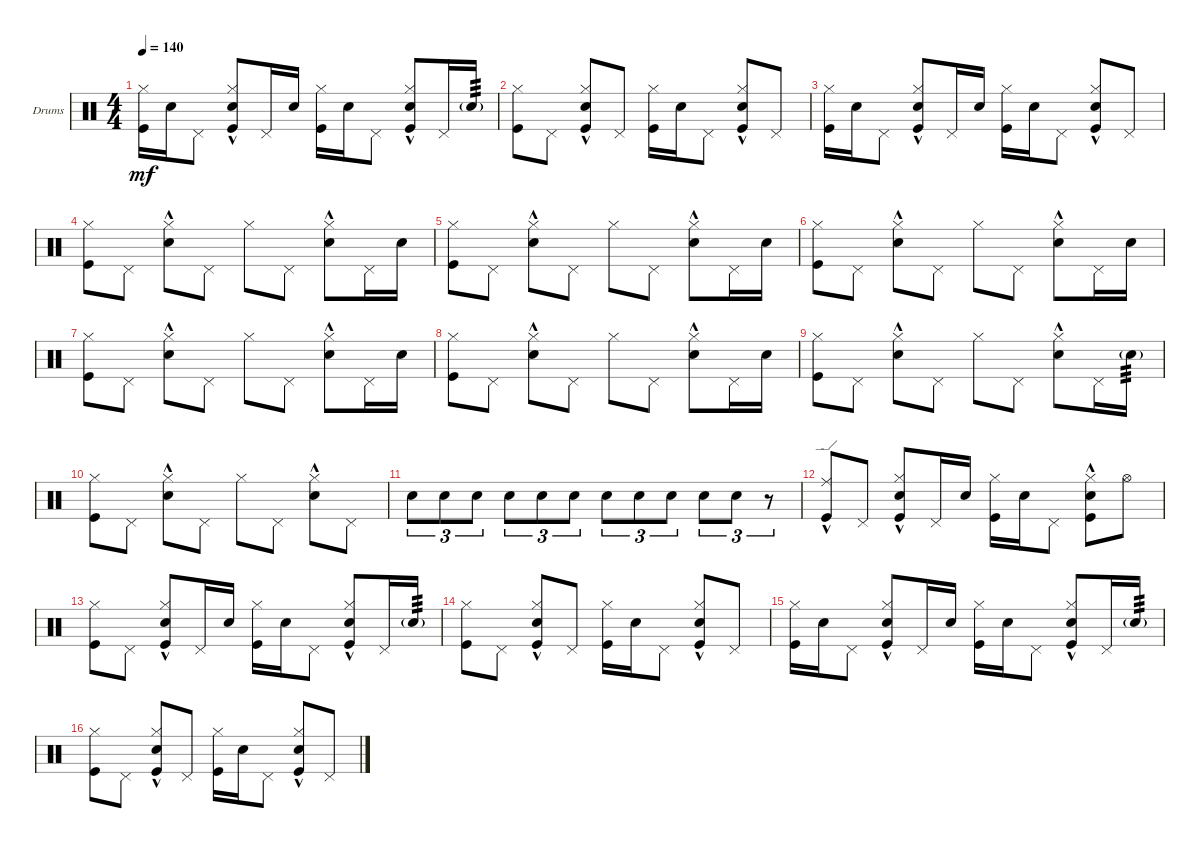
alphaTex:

\defaultSystemsLayout 4
\bracketExtendMode groupsimilarinstruments
\firstSystemTrackNameOrientation horizontal
\otherSystemsTrackNameOrientation horizontal
\track ("Drumkit" "Drums") {instrument percussion}
\staff {score}
\articulation defaults
\ts (4 4)
\tempo 140
\clef neutral
\scale
0.270064
\ks c
("Kick (hit)" "Hi-Hat (closed)").16{dy mf} "Snare (hit) 2".16 "Pedal Hi-Hat (hit)".8 ("Hi-Hat (closed)" "Kick (hit)" "Snare (hit) 2"{hac}).8 "Pedal Hi-Hat (hit)".16 "Snare (hit) 2".16 ("Kick (hit)" "Hi-Hat (closed)").16 "Snare (hit) 2".16 "Pedal Hi-Hat (hit)".8 ("Hi-Hat (closed)" "Kick (hit)" "Snare (hit) 2"{hac}).8 "Pedal Hi-Hat (hit)".16 "Snare (hit) 2"{g}.16{tp 3} |
\scale
0.235669 ("Kick (hit)" "Hi-Hat (closed)").8 "Pedal Hi-Hat (hit)".8 ("Hi-Hat (closed)" "Kick (hit)" "Snare (hit) 2"{hac}).8 "Pedal Hi-Hat (hit)".8 ("Kick (hit)" "Hi-Hat (closed)").16 "Snare (hit) 2".16 "Pedal Hi-Hat (hit)".8 ("Hi-Hat (closed)" "Kick (hit)" "Snare (hit) 2"{hac}).8 "Pedal Hi-Hat (hit)".8 |
\scale
0.258599 ("Kick (hit)" "Hi-Hat (closed)").16 "Snare (hit) 2".16 "Pedal Hi-Hat (hit)".8 ("Hi-Hat (closed)" "Kick (hit)" "Snare (hit) 2"{hac}).8 "Pedal Hi-Hat (hit)".16 "Snare (hit) 2".16 ("Kick (hit)" "Hi-Hat (closed)").16 "Snare (hit) 2".16 "Pedal Hi-Hat (hit)".8 ("Hi-Hat (closed)" "Kick (hit)" "Snare (hit) 2"{hac}).8 "Pedal Hi-Hat (hit)".8 |
\scale
0.235669 ("Kick (hit)" "Hi-Hat (closed)").8 "Pedal Hi-Hat (hit)".8 ("Hi-Hat (closed)" "Snare (hit) 2"{hac}).8 "Pedal Hi-Hat (hit)".8 "Hi-Hat (closed)".8 "Pedal Hi-Hat (hit)".8 ("Hi-Hat (closed)" "Snare (hit) 2"{hac}).8 "Pedal Hi-Hat (hit)".16 "Snare (hit) 2".16 |
\scale
0.25 ("Kick (hit)" "Hi-Hat (closed)").8 "Pedal Hi-Hat (hit)".8 ("Hi-Hat (closed)" "Snare (hit) 2"{hac}).8 "Pedal Hi-Hat (hit)".8 "Hi-Hat (closed)".8 "Pedal Hi-Hat (hit)".8 ("Hi-Hat (closed)" "Snare (hit) 2"{hac}).8 "Pedal Hi-Hat (hit)".16 "Snare (hit) 2".16 |
\scale
0.25 ("Kick (hit)" "Hi-Hat (closed)").8 "Pedal Hi-Hat (hit)".8 ("Hi-Hat (closed)" "Snare (hit) 2"{hac}).8 "Pedal Hi-Hat (hit)".8 "Hi-Hat (closed)".8 "Pedal Hi-Hat (hit)".8 ("Hi-Hat (closed)" "Snare (hit) 2"{hac}).8 "Pedal Hi-Hat (hit)".16 "Snare (hit) 2".16 |
\scale
0.25 ("Kick (hit)" "Hi-Hat (closed)").8 "Pedal Hi-Hat (hit)".8 ("Hi-Hat (closed)" "Snare (hit) 2"{hac}).8 "Pedal Hi-Hat (hit)".8 "Hi-Hat (closed)".8 "Pedal Hi-Hat (hit)".8 ("Hi-Hat (closed)" "Snare (hit) 2"{hac}).8 "Pedal Hi-Hat (hit)".16 "Snare (hit) 2".16 |
\scale
0.25 ("Kick (hit)" "Hi-Hat (closed)").8 "Pedal Hi-Hat (hit)".8 ("Hi-Hat (closed)" "Snare (hit) 2"{hac}).8 "Pedal Hi-Hat (hit)".8 "Hi-Hat (closed)".8 "Pedal Hi-Hat (hit)".8 ("Hi-Hat (closed)" "Snare (hit) 2"{hac}).8 "Pedal Hi-Hat (hit)".16 "Snare (hit) 2".16 |
\scale
0.241199 ("Kick (hit)" "Hi-Hat (closed)").8 "Pedal Hi-Hat (hit)".8 ("Hi-Hat (closed)" "Snare (hit) 2"{hac}).8 "Pedal Hi-Hat (hit)".8 "Hi-Hat (closed)".8 "Pedal Hi-Hat (hit)".8 ("Hi-Hat (closed)" "Snare (hit) 2"{hac}).8 "Pedal Hi-Hat (hit)".16 "Snare (hit) 2"{g}.16{tp 3} |
\scale
0.208605 ("Kick (hit)" "Hi-Hat (closed)").8 "Pedal Hi-Hat (hit)".8 ("Hi-Hat (closed)" "Snare (hit) 2"{hac}).8 "Pedal Hi-Hat (hit)".8 "Hi-Hat (closed)".8 "Pedal Hi-Hat (hit)".8 ("Hi-Hat (closed)" "Snare (hit) 2"{hac}).8 "Pedal Hi-Hat (hit)".8 |
\scale
0.297262 "Snare (hit) 2".8{tu (3 2)} "Snare (hit) 2".8{tu (3 2)} "Snare (hit) 2".8{tu (3 2)} "Snare (hit) 2".8{tu (3 2)} "Snare (hit) 2".8{tu (3 2)} "Snare (hit) 2".8{tu (3 2)} "Snare (hit) 2".8{tu (3 2)} "Snare (hit) 2".8{tu (3 2)} "Snare (hit) 2".8{tu (3 2)} "Snare (hit) 2".8{tu (3 2)} "Snare (hit) 2".8{tu (3 2)} r.8{tu (3 2)} |
\scale
0.252934 ("Kick (hit)" "Ride (edge)"{hac}).8 "Pedal Hi-Hat (hit)".8 ("Hi-Hat (closed)" "Kick (hit)" "Snare (hit) 2"{hac}).8 "Pedal Hi-Hat (hit)".16 "Snare (hit) 2".16 ("Kick (hit)" "Hi-Hat (closed)").16 "Snare (hit) 2".16 "Pedal Hi-Hat (hit)".8 ("Hi-Hat (closed)" "Kick (hit)" "Snare (hit) 2"{hac}).8 "Hi-Hat (open)".8 |
\scale
0.258599 ("Kick (hit)" "Hi-Hat (closed)").8 "Pedal Hi-Hat (hit)".8 ("Hi-Hat (closed)" "Kick (hit)" "Snare (hit) 2"{hac}).8 "Pedal Hi-Hat (hit)".16 "Snare (hit) 2".16 ("Kick (hit)" "Hi-Hat (closed)").16 "Snare (hit) 2".16 "Pedal Hi-Hat (hit)".8 ("Hi-Hat (closed)" "Kick (hit)" "Snare (hit) 2"{hac}).8 "Pedal Hi-Hat (hit)".16 "Snare (hit) 2"{g}.16{tp 3} |
\scale
0.235669 ("Kick (hit)" "Hi-Hat (closed)").8 "Pedal Hi-Hat (hit)".8 ("Hi-Hat (closed)" "Kick (hit)" "Snare (hit) 2"{hac}).8 "Pedal Hi-Hat (hit)".8 ("Kick (hit)" "Hi-Hat (closed)").16 "Snare (hit) 2".16 "Pedal Hi-Hat (hit)".8 ("Hi-Hat (closed)" "Kick (hit)" "Snare (hit) 2"{hac}).8 "Pedal Hi-Hat (hit)".8 |
\scale
0.270064 ("Kick (hit)" "Hi-Hat (closed)").16 "Snare (hit) 2".16 "Pedal Hi-Hat (hit)".8 ("Hi-Hat (closed)" "Kick (hit)" "Snare (hit) 2"{hac}).8 "Pedal Hi-Hat (hit)".16 "Snare (hit) 2".16 ("Kick (hit)" "Hi-Hat (closed)").16 "Snare (hit) 2".16 "Pedal Hi-Hat (hit)".8 ("Hi-Hat (closed)" "Kick (hit)" "Snare (hit) 2"{hac}).8 "Pedal Hi-Hat (hit)".16 "Snare (hit) 2"{g}.16{tp 3} |
\scale
0.235669 ("Kick (hit)" "Hi-Hat (closed)").8 "Pedal Hi-Hat (hit)".8 ("Hi-Hat (closed)" "Kick (hit)" "Snare (hit) 2"{hac}).8 "Pedal Hi-Hat (hit)".8 ("Kick (hit)" "Hi-Hat (closed)").16 "Snare (hit) 2".16 "Pedal Hi-Hat (hit)".8 ("Hi-Hat (closed)" "Kick (hit)" "Snare (hit) 2"{hac}).8 "Pedal Hi-Hat (hit)".8
